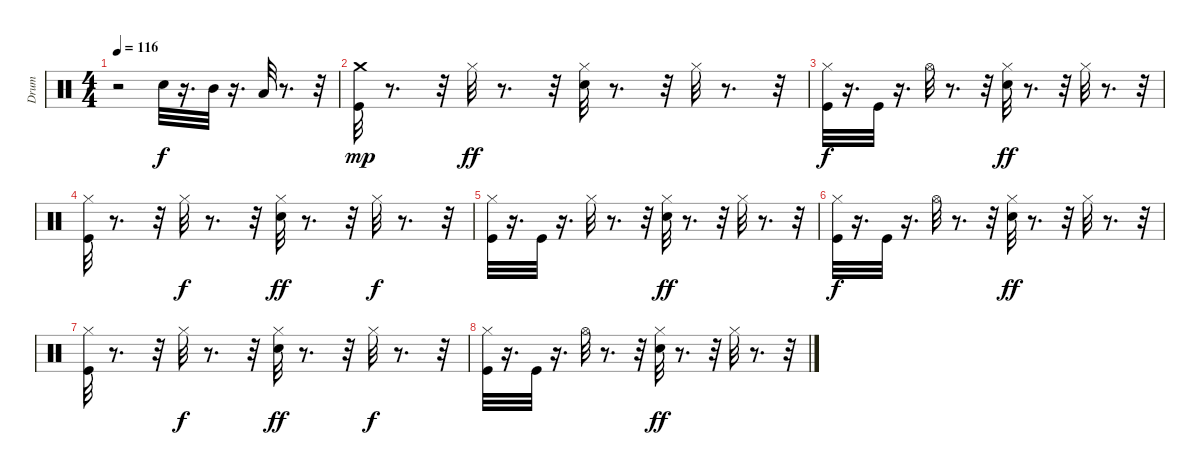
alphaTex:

\track ("Drum    " "Drum    ") {instrument percussion}
\staff {score}
\articulation defaults
\ts (4 4)
\tempo 116
\clef neutral
\ks c
r.2{dy ff} "Electric Snare (hit)".32{dy f} r.16{d} "Mid Tom (hit)".32 r.16{d} "Low Tom (hit)".32 r.8{d} r.32 |
("Crash medium (hit)" "Kick (hit)").32{dy mp} r.8{d} r.32 "Hi-Hat (closed)".32{dy ff} r.8{d} r.32 ("Electric Snare (hit)" "Hi-Hat (closed)").32 r.8{d} r.32 "Hi-Hat (closed)".32 r.8{d} r.32 |
("Kick (hit)" "Hi-Hat (closed)").32{dy f} r.16{d} "Kick (hit)".32 r.16{d} "Hi-Hat (open)".32 r.8{d} r.32 ("Electric Snare (hit)" "Hi-Hat (closed)").32{dy ff} r.8{d} r.32 "Hi-Hat (closed)".32 r.8{d} r.32 |
("Kick (hit)" "Hi-Hat (closed)").32 r.8{d} r.32 "Hi-Hat (closed)".32{dy f} r.8{d} r.32 ("Hi-Hat (closed)" "Electric Snare (hit)").32{dy ff} r.8{d} r.32 "Hi-Hat (closed)".32{dy f} r.8{d} r.32 |
("Kick (hit)" "Hi-Hat (closed)").32 r.16{d} "Kick (hit)".32 r.16{d} "Hi-Hat (closed)".32 r.8{d} r.32 ("Hi-Hat (closed)" "Electric Snare (hit)").32{dy ff} r.8{d} r.32 "Hi-Hat (closed)".32 r.8{d} r.32 |
("Hi-Hat (closed)" "Kick (hit)").32{dy f} r.16{d} "Kick (hit)".32 r.16{d} "Hi-Hat (open)".32 r.8{d} r.32 ("Hi-Hat (closed)" "Electric Snare (hit)").32{dy ff} r.8{d} r.32 "Hi-Hat (closed)".32 r.8{d} r.32 |
("Kick (hit)" "Hi-Hat (closed)").32 r.8{d} r.32 "Hi-Hat (closed)".32{dy f} r.8{d} r.32 ("Hi-Hat (closed)" "Electric Snare (hit)").32{dy ff} r.8{d} r.32 "Hi-Hat (closed)".32{dy f} r.8{d} r.32 |
("Kick (hit)" "Hi-Hat (closed)").32 r.16{d} "Kick (hit)".32 r.16{d} "Hi-Hat (open)".32 r.8{d} r.32 ("Hi-Hat (closed)" "Electric Snare (hit)").32{dy ff} r.8{d} r.32 "Hi-Hat (closed)".32 r.8{d} r.32
